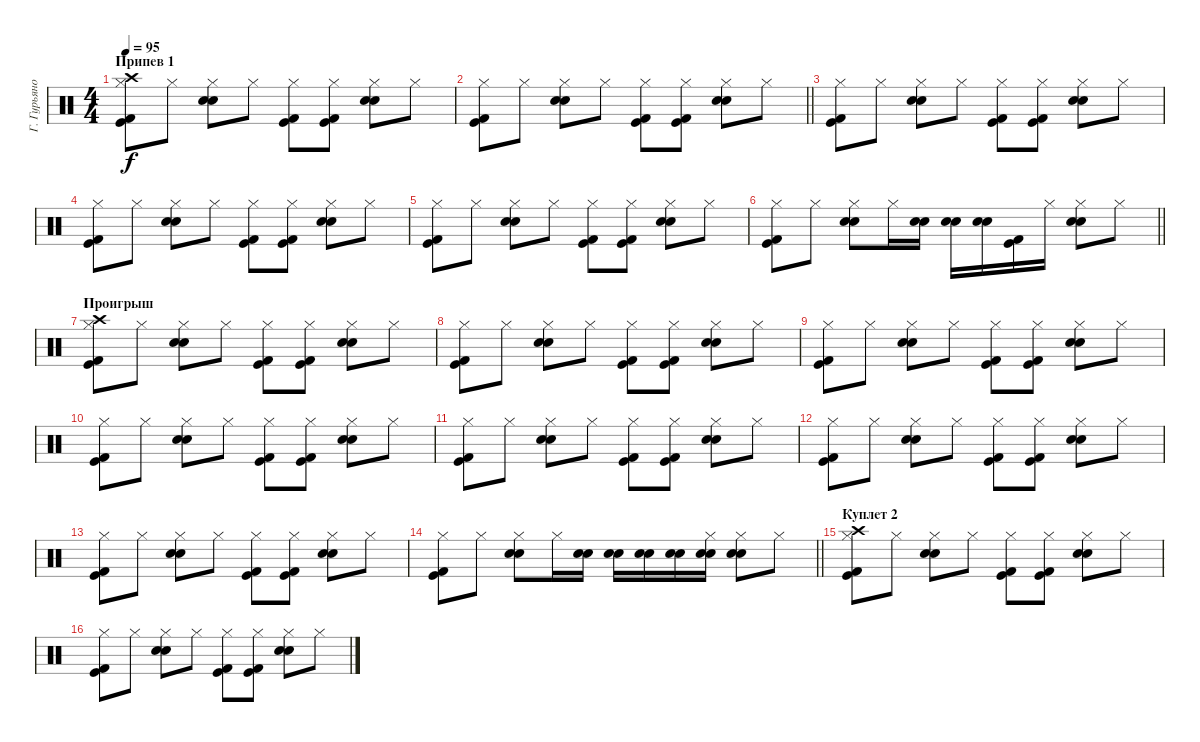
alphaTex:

\track ("Г. Гурьянов" "Г. Гурьяно") {instrument percussion}
\staff {score}
\articulation defaults
\ts (4 4)
\section ("" "Припев 1")
\tempo 95
\clef neutral
\ks c
("Kick (hit) 2" "Kick (hit)" "Crash high (hit)" "Hi-Hat (closed)").8{dy f} "Hi-Hat (closed)".8 ("Electric Snare (hit)" "Snare (hit) 2" "Hi-Hat (closed)").8 "Hi-Hat (closed)".8 ("Kick (hit) 2" "Kick (hit)" "Hi-Hat (closed)").8 ("Kick (hit) 2" "Kick (hit)" "Hi-Hat (closed)").8 ("Electric Snare (hit)" "Snare (hit) 2" "Hi-Hat (closed)").8 "Hi-Hat (closed)".8 |
\barLineRight lightlight
("Kick (hit) 2" "Kick (hit)" "Hi-Hat (closed)").8 "Hi-Hat (closed)".8 ("Electric Snare (hit)" "Snare (hit) 2" "Hi-Hat (closed)").8 "Hi-Hat (closed)".8 ("Kick (hit) 2" "Kick (hit)" "Hi-Hat (closed)").8 ("Kick (hit) 2" "Kick (hit)" "Hi-Hat (closed)").8 ("Electric Snare (hit)" "Snare (hit) 2" "Hi-Hat (closed)").8 "Hi-Hat (closed)".8 |
("Kick (hit) 2" "Kick (hit)" "Hi-Hat (closed)").8 "Hi-Hat (closed)".8 ("Electric Snare (hit)" "Snare (hit) 2" "Hi-Hat (closed)").8 "Hi-Hat (closed)".8 ("Kick (hit) 2" "Kick (hit)" "Hi-Hat (closed)").8 ("Kick (hit) 2" "Kick (hit)" "Hi-Hat (closed)").8 ("Electric Snare (hit)" "Snare (hit) 2" "Hi-Hat (closed)").8 "Hi-Hat (closed)".8 |
("Kick (hit) 2" "Kick (hit)" "Hi-Hat (closed)").8 "Hi-Hat (closed)".8 ("Electric Snare (hit)" "Snare (hit) 2" "Hi-Hat (closed)").8 "Hi-Hat (closed)".8 ("Kick (hit) 2" "Kick (hit)" "Hi-Hat (closed)").8 ("Kick (hit) 2" "Kick (hit)" "Hi-Hat (closed)").8 ("Electric Snare (hit)" "Snare (hit) 2" "Hi-Hat (closed)").8 "Hi-Hat (closed)".8 |
("Kick (hit) 2" "Kick (hit)" "Hi-Hat (closed)").8 "Hi-Hat (closed)".8 ("Electric Snare (hit)" "Snare (hit) 2" "Hi-Hat (closed)").8 "Hi-Hat (closed)".8 ("Kick (hit) 2" "Kick (hit)" "Hi-Hat (closed)").8 ("Kick (hit) 2" "Kick (hit)" "Hi-Hat (closed)").8 ("Electric Snare (hit)" "Snare (hit) 2" "Hi-Hat (closed)").8 "Hi-Hat (closed)".8 |
\barLineRight lightlight
("Kick (hit) 2" "Kick (hit)" "Hi-Hat (closed)").8 "Hi-Hat (closed)".8 ("Electric Snare (hit)" "Snare (hit) 2" "Hi-Hat (closed)").8 "Hi-Hat (closed)".16 ("Electric Snare (hit)" "Snare (hit) 2").16 ("Electric Snare (hit)" "Snare (hit) 2").16 ("Electric Snare (hit)" "Snare (hit) 2").16 ("Kick (hit) 2" "Kick (hit)").16 "Hi-Hat (closed)".16 ("Electric Snare (hit)" "Snare (hit) 2" "Hi-Hat (closed)").8 "Hi-Hat (closed)".8 |
\section ("" "Проигрыш")
("Kick (hit) 2" "Kick (hit)" "Crash high (hit)" "Hi-Hat (closed)").8 "Hi-Hat (closed)".8 ("Electric Snare (hit)" "Snare (hit) 2" "Hi-Hat (closed)").8 "Hi-Hat (closed)".8 ("Kick (hit) 2" "Kick (hit)" "Hi-Hat (closed)").8 ("Kick (hit) 2" "Kick (hit)" "Hi-Hat (closed)").8 ("Electric Snare (hit)" "Snare (hit) 2" "Hi-Hat (closed)").8 "Hi-Hat (closed)".8 |
("Kick (hit) 2" "Kick (hit)" "Hi-Hat (closed)").8 "Hi-Hat (closed)".8 ("Electric Snare (hit)" "Snare (hit) 2" "Hi-Hat (closed)").8 "Hi-Hat (closed)".8 ("Kick (hit) 2" "Kick (hit)" "Hi-Hat (closed)").8 ("Kick (hit) 2" "Kick (hit)" "Hi-Hat (closed)").8 ("Electric Snare (hit)" "Snare (hit) 2" "Hi-Hat (closed)").8 "Hi-Hat (closed)".8 |
("Kick (hit) 2" "Kick (hit)" "Hi-Hat (closed)").8 "Hi-Hat (closed)".8 ("Electric Snare (hit)" "Snare (hit) 2" "Hi-Hat (closed)").8 "Hi-Hat (closed)".8 ("Kick (hit) 2" "Kick (hit)" "Hi-Hat (closed)").8 ("Kick (hit) 2" "Kick (hit)" "Hi-Hat (closed)").8 ("Electric Snare (hit)" "Snare (hit) 2" "Hi-Hat (closed)").8 "Hi-Hat (closed)".8 |
("Kick (hit) 2" "Kick (hit)" "Hi-Hat (closed)").8 "Hi-Hat (closed)".8 ("Electric Snare (hit)" "Snare (hit) 2" "Hi-Hat (closed)").8 "Hi-Hat (closed)".8 ("Kick (hit) 2" "Kick (hit)" "Hi-Hat (closed)").8 ("Kick (hit) 2" "Kick (hit)" "Hi-Hat (closed)").8 ("Electric Snare (hit)" "Snare (hit) 2" "Hi-Hat (closed)").8 "Hi-Hat (closed)".8 |
("Kick (hit) 2" "Kick (hit)" "Hi-Hat (closed)").8 "Hi-Hat (closed)".8 ("Electric Snare (hit)" "Snare (hit) 2" "Hi-Hat (closed)").8 "Hi-Hat (closed)".8 ("Kick (hit) 2" "Kick (hit)" "Hi-Hat (closed)").8 ("Kick (hit) 2" "Kick (hit)" "Hi-Hat (closed)").8 ("Electric Snare (hit)" "Snare (hit) 2" "Hi-Hat (closed)").8 "Hi-Hat (closed)".8 |
("Kick (hit) 2" "Kick (hit)" "Hi-Hat (closed)").8 "Hi-Hat (closed)".8 ("Electric Snare (hit)" "Snare (hit) 2" "Hi-Hat (closed)").8 "Hi-Hat (closed)".8 ("Kick (hit) 2" "Kick (hit)" "Hi-Hat (closed)").8 ("Kick (hit) 2" "Kick (hit)" "Hi-Hat (closed)").8 ("Electric Snare (hit)" "Snare (hit) 2" "Hi-Hat (closed)").8 "Hi-Hat (closed)".8 |
("Kick (hit) 2" "Kick (hit)" "Hi-Hat (closed)").8 "Hi-Hat (closed)".8 ("Electric Snare (hit)" "Snare (hit) 2" "Hi-Hat (closed)").8 "Hi-Hat (closed)".8 ("Kick (hit) 2" "Kick (hit)" "Hi-Hat (closed)").8 ("Kick (hit) 2" "Kick (hit)" "Hi-Hat (closed)").8 ("Electric Snare (hit)" "Snare (hit) 2" "Hi-Hat (closed)").8 "Hi-Hat (closed)".8 |
\barLineRight lightlight
("Kick (hit) 2" "Kick (hit)" "Hi-Hat (closed)").8 "Hi-Hat (closed)".8 ("Electric Snare (hit)" "Snare (hit) 2" "Hi-Hat (closed)").8 "Hi-Hat (closed)".16 ("Electric Snare (hit)" "Snare (hit) 2").16 ("Electric Snare (hit)" "Snare (hit) 2").16 ("Electric Snare (hit)" "Snare (hit) 2").16 ("Electric Snare (hit)" "Snare (hit) 2").16 ("Electric Snare (hit)" "Snare (hit) 2" "Hi-Hat (closed)").16 ("Electric Snare (hit)" "Snare (hit) 2" "Hi-Hat (closed)").8 "Hi-Hat (closed)".8 |
\section ("" "Куплет 2")
("Kick (hit) 2" "Kick (hit)" "Crash high (hit)" "Hi-Hat (closed)").8 "Hi-Hat (closed)".8 ("Electric Snare (hit)" "Snare (hit) 2" "Hi-Hat (closed)").8 "Hi-Hat (closed)".8 ("Kick (hit) 2" "Kick (hit)" "Hi-Hat (closed)").8 ("Kick (hit) 2" "Kick (hit)" "Hi-Hat (closed)").8 ("Electric Snare (hit)" "Snare (hit) 2" "Hi-Hat (closed)").8 "Hi-Hat (closed)".8 |
("Kick (hit) 2" "Kick (hit)" "Hi-Hat (closed)").8 "Hi-Hat (closed)".8 ("Electric Snare (hit)" "Snare (hit) 2" "Hi-Hat (closed)").8 "Hi-Hat (closed)".8 ("Kick (hit) 2" "Kick (hit)" "Hi-Hat (closed)").8 ("Kick (hit) 2" "Kick (hit)" "Hi-Hat (closed)").8 ("Electric Snare (hit)" "Snare (hit) 2" "Hi-Hat (closed)").8 "Hi-Hat (closed)".8
